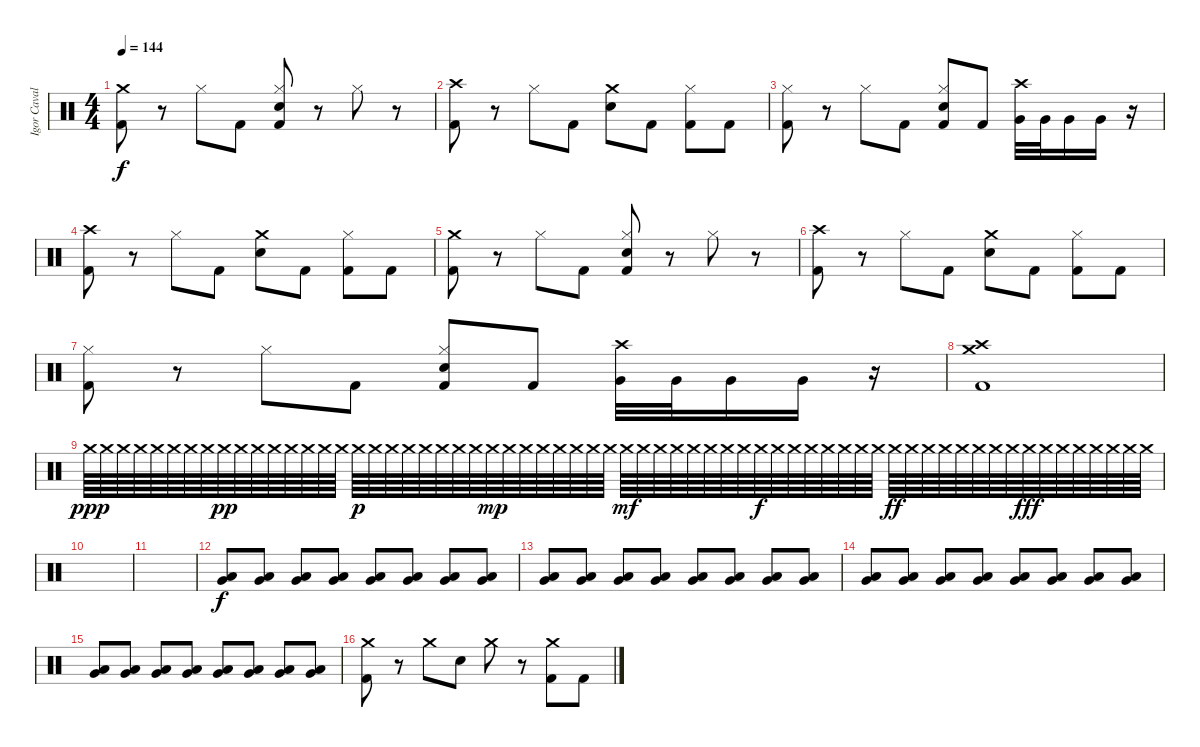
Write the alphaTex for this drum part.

\track ("Igor Cavalera" "Igor Caval") {instrument percussion}
\staff {score}
\articulation defaults
\ts (4 4)
\tempo 144
\clef neutral
\ks c
("Kick (hit) 2" "Crash medium (hit)").8{dy f} r.8 "Hi-Hat (closed)".8 "Kick (hit) 2".8 ("Kick (hit) 2" "Hi-Hat (closed)" "Snare (hit) 2").8 r.8 "Hi-Hat (closed)".8 r.8 |
("Kick (hit) 2" "Crash high (hit)").8 r.8 "Hi-Hat (closed)".8 "Kick (hit) 2".8 ("Snare (hit) 2" "Crash medium (hit)").8 "Kick (hit) 2".8 ("Hi-Hat (closed)" "Kick (hit) 2").8 "Kick (hit) 2".8 |
("Kick (hit) 2" "Hi-Hat (closed)").8 r.8 "Hi-Hat (closed)".8 "Kick (hit) 2".8 ("Kick (hit) 2" "Hi-Hat (closed)" "Snare (hit) 2").8 "Kick (hit) 2".8 ("Crash high (hit)" "Very Low Tom (hit)").32 "Very Low Tom (hit)".32 "Very Low Tom (hit)".16 "Very Low Tom (hit)".16 r.16 |
("Kick (hit) 2" "Crash high (hit)").8 r.8 "Hi-Hat (closed)".8 "Kick (hit) 2".8 ("Snare (hit) 2" "Crash medium (hit)").8 "Kick (hit) 2".8 ("Hi-Hat (closed)" "Kick (hit) 2").8 "Kick (hit) 2".8 |
("Kick (hit) 2" "Crash medium (hit)").8 r.8 "Hi-Hat (closed)".8 "Kick (hit) 2".8 ("Kick (hit) 2" "Hi-Hat (closed)" "Snare (hit) 2").8 r.8 "Hi-Hat (closed)".8 r.8 |
("Kick (hit) 2" "Crash high (hit)").8 r.8 "Hi-Hat (closed)".8 "Kick (hit) 2".8 ("Snare (hit) 2" "Crash medium (hit)").8 "Kick (hit) 2".8 ("Hi-Hat (closed)" "Kick (hit) 2").8 "Kick (hit) 2".8 |
("Kick (hit) 2" "Hi-Hat (closed)").8 r.8 "Hi-Hat (closed)".8 "Kick (hit) 2".8 ("Kick (hit) 2" "Hi-Hat (closed)" "Snare (hit) 2").8 "Kick (hit) 2".8 ("Crash high (hit)" "Very Low Tom (hit)").32 "Very Low Tom (hit)".32 "Very Low Tom (hit)".16 "Very Low Tom (hit)".16 r.16 |
("Kick (hit) 2" "Crash high (hit)" "Crash medium (hit)").1 |
"Crash medium (hit)".64{dy ppp} "Crash medium (hit)".64 "Crash medium (hit)".64 "Crash medium (hit)".64 "Crash medium (hit)".64 "Crash medium (hit)".64 "Crash medium (hit)".64 "Crash medium (hit)".64 "Crash medium (hit)".64{dy pp} "Crash medium (hit)".64 "Crash medium (hit)".64 "Crash medium (hit)".64 "Crash medium (hit)".64 "Crash medium (hit)".64 "Crash medium (hit)".64 "Crash medium (hit)".64 "Crash medium (hit)".64{dy p} "Crash medium (hit)".64 "Crash medium (hit)".64 "Crash medium (hit)".64 "Crash medium (hit)".64 "Crash medium (hit)".64 "Crash medium (hit)".64 "Crash medium (hit)".64 "Crash medium (hit)".64{dy mp} "Crash medium (hit)".64 "Crash medium (hit)".64 "Crash medium (hit)".64 "Crash medium (hit)".64 "Crash medium (hit)".64 "Crash medium (hit)".64 "Crash medium (hit)".64 "Crash medium (hit)".64{dy mf} "Crash medium (hit)".64 "Crash medium (hit)".64 "Crash medium (hit)".64 "Crash medium (hit)".64 "Crash medium (hit)".64 "Crash medium (hit)".64 "Crash medium (hit)".64 "Crash medium (hit)".64{dy f} "Crash medium (hit)".64 "Crash medium (hit)".64 "Crash medium (hit)".64 "Crash medium (hit)".64 "Crash medium (hit)".64 "Crash medium (hit)".64 "Crash medium (hit)".64 "Crash medium (hit)".64{dy ff} "Crash medium (hit)".64 "Crash medium (hit)".64 "Crash medium (hit)".64 "Crash medium (hit)".64 "Crash medium (hit)".64 "Crash medium (hit)".64 "Crash medium (hit)".64 "Crash medium (hit)".64{dy fff} "Crash medium (hit)".64 "Crash medium (hit)".64 "Crash medium (hit)".64 "Crash medium (hit)".64 "Crash medium (hit)".64 "Crash medium (hit)".64 "Crash medium (hit)".64 |
|
|
("Very Low Tom (hit)" "Low Tom (hit)").8{dy f} ("Very Low Tom (hit)" "Low Tom (hit)").8 ("Very Low Tom (hit)" "Low Tom (hit)").8 ("Very Low Tom (hit)" "Low Tom (hit)").8 ("Very Low Tom (hit)" "Low Tom (hit)").8 ("Very Low Tom (hit)" "Low Tom (hit)").8 ("Very Low Tom (hit)" "Low Tom (hit)").8 ("Very Low Tom (hit)" "Low Tom (hit)").8 |
("Very Low Tom (hit)" "Low Tom (hit)").8 ("Very Low Tom (hit)" "Low Tom (hit)").8 ("Very Low Tom (hit)" "Low Tom (hit)").8 ("Very Low Tom (hit)" "Low Tom (hit)").8 ("Very Low Tom (hit)" "Low Tom (hit)").8 ("Very Low Tom (hit)" "Low Tom (hit)").8 ("Very Low Tom (hit)" "Low Tom (hit)").8 ("Very Low Tom (hit)" "Low Tom (hit)").8 |
("Very Low Tom (hit)" "Low Tom (hit)").8 ("Very Low Tom (hit)" "Low Tom (hit)").8 ("Very Low Tom (hit)" "Low Tom (hit)").8 ("Very Low Tom (hit)" "Low Tom (hit)").8 ("Very Low Tom (hit)" "Low Tom (hit)").8 ("Very Low Tom (hit)" "Low Tom (hit)").8 ("Very Low Tom (hit)" "Low Tom (hit)").8 ("Very Low Tom (hit)" "Low Tom (hit)").8 |
("Very Low Tom (hit)" "Low Tom (hit)").8 ("Very Low Tom (hit)" "Low Tom (hit)").8 ("Very Low Tom (hit)" "Low Tom (hit)").8 ("Very Low Tom (hit)" "Low Tom (hit)").8 ("Very Low Tom (hit)" "Low Tom (hit)").8 ("Very Low Tom (hit)" "Low Tom (hit)").8 ("Very Low Tom (hit)" "Low Tom (hit)").8 ("Very Low Tom (hit)" "Low Tom (hit)").8 |
("Crash medium (hit)" "Kick (hit) 2").8 r.8 "Crash medium (hit)".8 "Snare (hit) 2".8 "Crash medium (hit)".8 r.8 ("Crash medium (hit)" "Kick (hit) 2").8 "Kick (hit) 2".8
